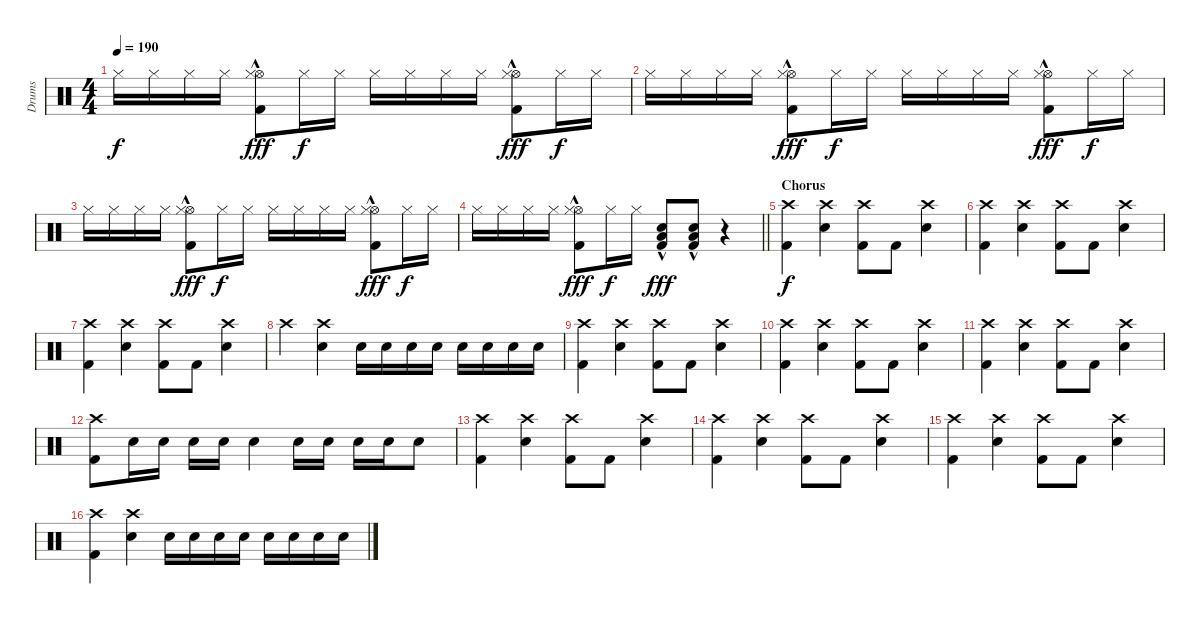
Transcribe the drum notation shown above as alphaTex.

\track ("Drums" "Drums") {instrument percussion}
\staff {score}
\articulation defaults
\ts (4 4)
\tempo 190
\clef neutral
\ks c "Hi-Hat (closed)".16{dy f} "Hi-Hat (closed)".16 "Hi-Hat (closed)".16 "Hi-Hat (closed)".16
("Hi-Hat (open)" "Hi-Hat (closed)"{hac} "Kick (hit) 2"{hac}).8{dy fff} "Hi-Hat (closed)".16{dy f} "Hi-Hat (closed)".16 "Hi-Hat (closed)".16 "Hi-Hat (closed)".16 "Hi-Hat (closed)".16 "Hi-Hat (closed)".16 ("Hi-Hat (open)" "Hi-Hat (closed)"{hac} "Kick (hit) 2"{hac}).8{dy fff} "Hi-Hat (closed)".16{dy f} "Hi-Hat (closed)".16 |
"Hi-Hat (closed)".16 "Hi-Hat (closed)".16 "Hi-Hat (closed)".16 "Hi-Hat (closed)".16 ("Hi-Hat (open)" "Hi-Hat (closed)"{hac} "Kick (hit) 2"{hac}).8{dy fff} "Hi-Hat (closed)".16{dy f} "Hi-Hat (closed)".16 "Hi-Hat (closed)".16 "Hi-Hat (closed)".16 "Hi-Hat (closed)".16 "Hi-Hat (closed)".16 ("Hi-Hat (open)" "Hi-Hat (closed)"{hac} "Kick (hit) 2"{hac}).8{dy fff} "Hi-Hat (closed)".16{dy f} "Hi-Hat (closed)".16 |
"Hi-Hat (closed)".16 "Hi-Hat (closed)".16 "Hi-Hat (closed)".16 "Hi-Hat (closed)".16 ("Hi-Hat (open)" "Hi-Hat (closed)"{hac} "Kick (hit) 2"{hac}).8{dy fff} "Hi-Hat (closed)".16{dy f} "Hi-Hat (closed)".16 "Hi-Hat (closed)".16 "Hi-Hat (closed)".16 "Hi-Hat (closed)".16 "Hi-Hat (closed)".16 ("Hi-Hat (open)" "Hi-Hat (closed)"{hac} "Kick (hit) 2"{hac}).8{dy fff} "Hi-Hat (closed)".16{dy f} "Hi-Hat (closed)".16 |
\barLineRight lightlight "Hi-Hat (closed)".16 "Hi-Hat (closed)".16 "Hi-Hat (closed)".16 "Hi-Hat (closed)".16
("Hi-Hat (open)" "Hi-Hat (closed)"{hac} "Kick (hit) 2"{hac}).8{dy fff} "Hi-Hat (closed)".16{dy f} "Hi-Hat (closed)".16 ("Low Floor Tom (hit)"{hac} "Electric Snare (hit)"{hac} "Kick (hit) 2"{hac}).8{dy fff} ("Low Floor Tom (hit)"{hac} "Electric Snare (hit)"{hac} "Kick (hit) 2"{hac}).8 r.4 |
\section ("" "Chorus")
("Crash high (hit)" "Kick (hit) 2").4{dy f} ("Crash high (hit)" "Electric Snare (hit)").4 ("Crash high (hit)" "Kick (hit) 2").8 "Kick (hit) 2".8 ("Crash high (hit)" "Electric Snare (hit)").4 |
("Crash high (hit)" "Kick (hit) 2").4 ("Crash high (hit)" "Electric Snare (hit)").4 ("Crash high (hit)" "Kick (hit) 2").8 "Kick (hit) 2".8 ("Crash high (hit)" "Electric Snare (hit)").4 |
("Crash high (hit)" "Kick (hit) 2").4 ("Crash high (hit)" "Electric Snare (hit)").4 ("Crash high (hit)" "Kick (hit) 2").8 "Kick (hit) 2".8 ("Crash high (hit)" "Electric Snare (hit)").4 |
"Crash high (hit)".4 ("Crash high (hit)" "Electric Snare (hit)").4 "Electric Snare (hit)".16 "Electric Snare (hit)".16 "Electric Snare (hit)".16 "Electric Snare (hit)".16 "Electric Snare (hit)".16 "Electric Snare (hit)".16 "Electric Snare (hit)".16 "Electric Snare (hit)".16 |
("Crash high (hit)" "Kick (hit) 2").4 ("Crash high (hit)" "Electric Snare (hit)").4 ("Crash high (hit)" "Kick (hit) 2").8 "Kick (hit) 2".8 ("Crash high (hit)" "Electric Snare (hit)").4 |
("Crash high (hit)" "Kick (hit) 2").4 ("Crash high (hit)" "Electric Snare (hit)").4 ("Crash high (hit)" "Kick (hit) 2").8 "Kick (hit) 2".8 ("Crash high (hit)" "Electric Snare (hit)").4 |
("Crash high (hit)" "Kick (hit) 2").4 ("Crash high (hit)" "Electric Snare (hit)").4 ("Crash high (hit)" "Kick (hit) 2").8 "Kick (hit) 2".8 ("Crash high (hit)" "Electric Snare (hit)").4 |
("Crash high (hit)" "Kick (hit) 2").8 "Electric Snare (hit)".16 "Electric Snare (hit)".16 "Electric Snare (hit)".16 "Electric Snare (hit)".16 "Electric Snare (hit)".4 "Electric Snare (hit)".16 "Electric Snare (hit)".16 "Electric Snare (hit)".16 "Electric Snare (hit)".16 "Electric Snare (hit)".8 |
("Crash high (hit)" "Kick (hit) 2").4 ("Crash high (hit)" "Electric Snare (hit)").4 ("Crash high (hit)" "Kick (hit) 2").8 "Kick (hit) 2".8 ("Crash high (hit)" "Electric Snare (hit)").4 |
("Crash high (hit)" "Kick (hit) 2").4 ("Crash high (hit)" "Electric Snare (hit)").4 ("Crash high (hit)" "Kick (hit) 2").8 "Kick (hit) 2".8 ("Crash high (hit)" "Electric Snare (hit)").4 |
("Crash high (hit)" "Kick (hit) 2").4 ("Crash high (hit)" "Electric Snare (hit)").4 ("Crash high (hit)" "Kick (hit) 2").8 "Kick (hit) 2".8 ("Crash high (hit)" "Electric Snare (hit)").4 |
("Crash high (hit)" "Kick (hit) 2").4 ("Crash high (hit)" "Electric Snare (hit)").4 "Electric Snare (hit)".16 "Electric Snare (hit)".16 "Electric Snare (hit)".16 "Electric Snare (hit)".16 "Electric Snare (hit)".16 "Electric Snare (hit)".16 "Electric Snare (hit)".16 "Electric Snare (hit)".16
